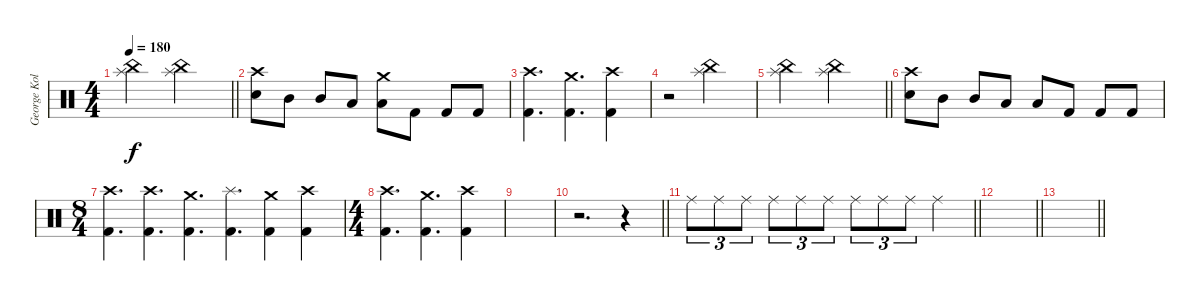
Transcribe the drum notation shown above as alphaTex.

\track ("George Kollias" "George Kol") {instrument percussion}
\staff {score}
\articulation defaults
\ts (4 4)
\tempo 180
\clef neutral
\barLineRight lightlight
\ks c
("China (hit)" "Splash (hit)").2{dy f} ("China (hit)" "Splash (hit)").2 |
("Crash high (hit)" "Electric Snare (hit)").8 "Mid Tom (hit)".8 "Mid Tom (hit)".8 "Low Tom (hit)".8 ("Crash medium (hit)" "Low Tom (hit)").8 "Kick (hit) 2".8 "Kick (hit) 2".8 "Kick (hit) 2".8 |
("Crash high (hit)" "Kick (hit) 2").4{d} ("Crash medium (hit)" "Kick (hit) 2").4{d} ("Crash high (hit)" "Kick (hit) 2").4 |
r.2 ("China (hit)" "Splash (hit)").2 |
\barLineRight lightlight
("China (hit)" "Splash (hit)").2 ("China (hit)" "Splash (hit)").2 |
("Crash high (hit)" "Electric Snare (hit)").8 "Mid Tom (hit)".8 "Mid Tom (hit)".8 "Low Tom (hit)".8 "Low Tom (hit)".8 "Kick (hit) 2".8 "Kick (hit) 2".8 "Kick (hit) 2".8 |
\ts (8 4)
("Crash high (hit)" "Kick (hit) 2").4{d} ("Crash high (hit)" "Kick (hit) 2").4{d} ("Crash medium (hit)" "Kick (hit) 2").4{d} ("Splash (hit)" "Kick (hit) 2").4{d} ("Crash medium (hit)" "Kick (hit) 2").4 ("Crash high (hit)" "Kick (hit) 2").4 |
\ts (4 4)
("Crash high (hit)" "Kick (hit) 2").4{d} ("Crash medium (hit)" "Kick (hit) 2").4{d} ("Crash high (hit)" "Kick (hit) 2").4 |
|
\barLineRight lightlight
r.2{d} r.4{volume 0} |
\barLineRight lightlight "Ride (middle)".8{tu (3 2) volume 15} "Ride (middle)".8{tu (3 2)} "Ride (middle)".8{tu (3 2)} "Ride (middle)".8{tu (3 2)} "Ride (middle)".8{tu (3 2)} "Ride (middle)".8{tu (3 2)} "Ride (middle)".8{tu (3 2)} "Ride (middle)".8{tu (3 2)} "Ride (middle)".8{tu (3 2)} "Ride (middle)".4
|
\barLineRight lightlight
|
\barLineRight lightlight
